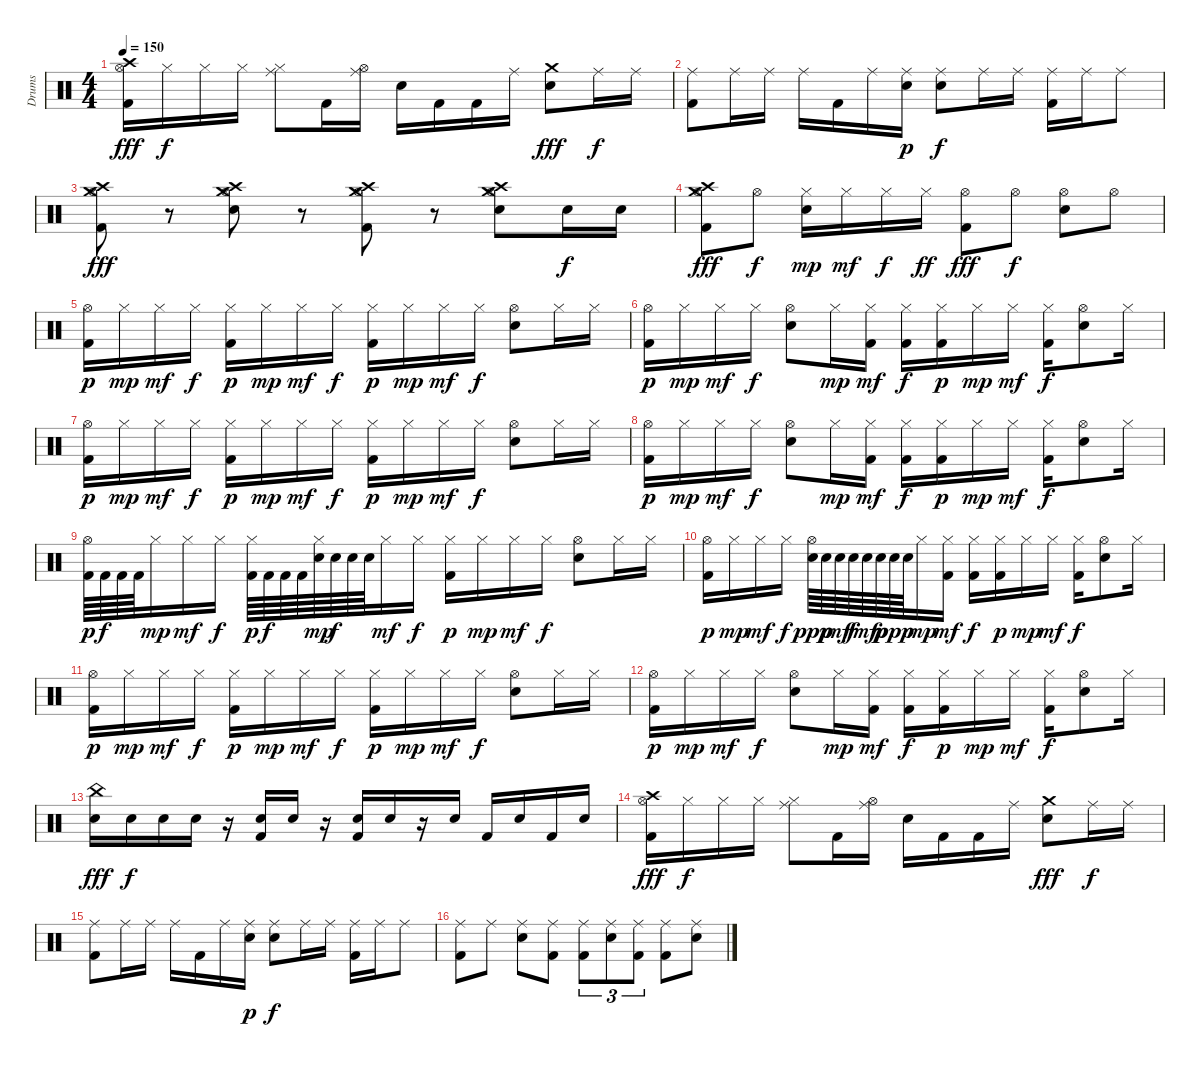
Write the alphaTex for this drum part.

\track ("Drums" "Drums") {instrument percussion}
\staff {score}
\articulation defaults
\ts (4 4)
\tempo 150
\clef neutral
\ks c
("Crash high (hit)" "Hi-Hat (open)" "Kick (hit) 2").16{dy fff} "Hi-Hat (closed)".16{dy f} "Hi-Hat (closed)".16 "Hi-Hat (closed)".16 ("Ride (middle)" "Hi-Hat (closed)").8 "Kick (hit) 2".16 ("Ride (middle)" "Hi-Hat (open)").16 "Electric Snare (hit)".16 "Kick (hit) 2".16 "Kick (hit) 2".16 "Ride (middle)".16 ("Crash medium (hit)" "Electric Snare (hit)").8{dy fff} "Ride (middle)".16{dy f} "Ride (middle)".16 |
("Ride (middle)" "Kick (hit) 2").8 "Ride (middle)".16 "Ride (middle)".16 "Ride (middle)".16 "Kick (hit) 2".16 "Ride (middle)".16 ("Ride (middle)" "Electric Snare (hit)").16{dy p} ("Ride (middle)" "Electric Snare (hit)").8{dy f} "Ride (middle)".16 "Ride (middle)".16 ("Ride (middle)" "Kick (hit) 2").16 "Ride (middle)".16 "Ride (middle)".8 |
("Crash medium (hit)" "Crash high (hit)" "Hi-Hat (open)" "Kick (hit) 2").8{dy fff} r.8 ("Crash medium (hit)" "Crash high (hit)" "Hi-Hat (open)" "Electric Snare (hit)").8 r.8 ("Crash medium (hit)" "Crash high (hit)" "Hi-Hat (open)" "Kick (hit) 2").8 r.8 ("Crash medium (hit)" "Crash high (hit)" "Hi-Hat (open)" "Electric Snare (hit)").8 "Electric Snare (hit)".16{dy f} "Electric Snare (hit)".16 |
("Crash medium (hit)" "Crash high (hit)" "Hi-Hat (open)" "Kick (hit) 2").8{dy fff} "Hi-Hat (open)".8{dy f} ("Hi-Hat (closed)" "Electric Snare (hit)").16{dy mp} "Hi-Hat (closed)".16{dy mf} "Hi-Hat (closed)".16{dy f} "Hi-Hat (closed)".16{dy ff} ("Hi-Hat (open)" "Kick (hit) 2").8{dy fff} "Hi-Hat (open)".8{dy f} ("Hi-Hat (open)" "Electric Snare (hit)").8 "Hi-Hat (open)".8 |
("Hi-Hat (open)" "Kick (hit) 2").16{dy p} "Hi-Hat (closed)".16{dy mp} "Hi-Hat (closed)".16{dy mf} "Hi-Hat (closed)".16{dy f} ("Hi-Hat (closed)" "Kick (hit) 2").16{dy p} "Hi-Hat (closed)".16{dy mp} "Hi-Hat (closed)".16{dy mf} "Hi-Hat (closed)".16{dy f} ("Hi-Hat (closed)" "Kick (hit) 2").16{dy p} "Hi-Hat (closed)".16{dy mp} "Hi-Hat (closed)".16{dy mf} "Hi-Hat (closed)".16{dy f} ("Hi-Hat (open)" "Electric Snare (hit)").8 "Hi-Hat (closed)".16 "Hi-Hat (closed)".16 |
("Hi-Hat (open)" "Kick (hit) 2").16{dy p} "Hi-Hat (closed)".16{dy mp} "Hi-Hat (closed)".16{dy mf} "Hi-Hat (closed)".16{dy f} ("Hi-Hat (open)" "Electric Snare (hit)").8 "Hi-Hat (closed)".16{dy mp} ("Hi-Hat (closed)" "Kick (hit) 2").16{dy mf} ("Hi-Hat (closed)" "Kick (hit) 2").16{dy f} ("Hi-Hat (closed)" "Kick (hit) 2").16{dy p} "Hi-Hat (closed)".16{dy mp} "Hi-Hat (closed)".16{dy mf} ("Hi-Hat (closed)" "Kick (hit) 2").16{dy f} ("Hi-Hat (open)" "Electric Snare (hit)").8 "Hi-Hat (closed)".16 |
("Hi-Hat (open)" "Kick (hit) 2").16{dy p} "Hi-Hat (closed)".16{dy mp} "Hi-Hat (closed)".16{dy mf} "Hi-Hat (closed)".16{dy f} ("Hi-Hat (closed)" "Kick (hit) 2").16{dy p} "Hi-Hat (closed)".16{dy mp} "Hi-Hat (closed)".16{dy mf} "Hi-Hat (closed)".16{dy f} ("Hi-Hat (closed)" "Kick (hit) 2").16{dy p} "Hi-Hat (closed)".16{dy mp} "Hi-Hat (closed)".16{dy mf} "Hi-Hat (closed)".16{dy f} ("Hi-Hat (open)" "Electric Snare (hit)").8 "Hi-Hat (closed)".16 "Hi-Hat (closed)".16 |
("Hi-Hat (open)" "Kick (hit) 2").16{dy p} "Hi-Hat (closed)".16{dy mp} "Hi-Hat (closed)".16{dy mf} "Hi-Hat (closed)".16{dy f} ("Hi-Hat (open)" "Electric Snare (hit)").8 "Hi-Hat (closed)".16{dy mp} ("Hi-Hat (closed)" "Kick (hit) 2").16{dy mf} ("Hi-Hat (closed)" "Kick (hit) 2").16{dy f} ("Hi-Hat (closed)" "Kick (hit) 2").16{dy p} "Hi-Hat (closed)".16{dy mp} "Hi-Hat (closed)".16{dy mf} ("Hi-Hat (closed)" "Kick (hit) 2").16{dy f} ("Hi-Hat (open)" "Electric Snare (hit)").8 "Hi-Hat (closed)".16 |
("Hi-Hat (open)" "Kick (hit) 2").64{dy p} "Kick (hit) 2".64{dy f} "Kick (hit) 2".64 "Kick (hit) 2".64 "Hi-Hat (closed)".16{dy mp} "Hi-Hat (closed)".16{dy mf} "Hi-Hat (closed)".16{dy f} ("Hi-Hat (closed)" "Kick (hit) 2").64{dy p} "Kick (hit) 2".64{dy f} "Kick (hit) 2".64 "Kick (hit) 2".64 ("Hi-Hat (closed)" "Electric Snare (hit)").64{dy mp} "Electric Snare (hit)".64{dy f} "Electric Snare (hit)".64 "Electric Snare (hit)".64 "Hi-Hat (closed)".16{dy mf} "Hi-Hat (closed)".16{dy f} ("Hi-Hat (closed)" "Kick (hit) 2").16{dy p} "Hi-Hat (closed)".16{dy mp} "Hi-Hat (closed)".16{dy mf} "Hi-Hat (closed)".16{dy f} ("Hi-Hat (open)" "Electric Snare (hit)").8 "Hi-Hat (closed)".16 "Hi-Hat (closed)".16 |
("Hi-Hat (open)" "Kick (hit) 2").16{dy p} "Hi-Hat (closed)".16{dy mp} "Hi-Hat (closed)".16{dy mf} "Hi-Hat (closed)".16{dy f} ("Hi-Hat (open)" "Electric Snare (hit)").64{dy ppp} "Electric Snare (hit)".64{dy p} "Electric Snare (hit)".64{dy mf} "Electric Snare (hit)".64{dy f} "Electric Snare (hit)".64{dy mf} "Electric Snare (hit)".64{dy p} "Electric Snare (hit)".64{dy ppp} "Electric Snare (hit)".64 "Hi-Hat (closed)".16{dy mp} ("Hi-Hat (closed)" "Kick (hit) 2").16{dy mf} ("Hi-Hat (closed)" "Kick (hit) 2").16{dy f} ("Hi-Hat (closed)" "Kick (hit) 2").16{dy p} "Hi-Hat (closed)".16{dy mp} "Hi-Hat (closed)".16{dy mf} ("Hi-Hat (closed)" "Kick (hit) 2").16{dy f} ("Hi-Hat (open)" "Electric Snare (hit)").8 "Hi-Hat (closed)".16 |
("Hi-Hat (open)" "Kick (hit) 2").16{dy p} "Hi-Hat (closed)".16{dy mp} "Hi-Hat (closed)".16{dy mf} "Hi-Hat (closed)".16{dy f} ("Hi-Hat (closed)" "Kick (hit) 2").16{dy p} "Hi-Hat (closed)".16{dy mp} "Hi-Hat (closed)".16{dy mf} "Hi-Hat (closed)".16{dy f} ("Hi-Hat (closed)" "Kick (hit) 2").16{dy p} "Hi-Hat (closed)".16{dy mp} "Hi-Hat (closed)".16{dy mf} "Hi-Hat (closed)".16{dy f} ("Hi-Hat (open)" "Electric Snare (hit)").8 "Hi-Hat (closed)".16 "Hi-Hat (closed)".16 |
("Hi-Hat (open)" "Kick (hit) 2").16{dy p} "Hi-Hat (closed)".16{dy mp} "Hi-Hat (closed)".16{dy mf} "Hi-Hat (closed)".16{dy f} ("Hi-Hat (open)" "Electric Snare (hit)").8 "Hi-Hat (closed)".16{dy mp} ("Hi-Hat (closed)" "Kick (hit) 2").16{dy mf} ("Hi-Hat (closed)" "Kick (hit) 2").16{dy f} ("Hi-Hat (closed)" "Kick (hit) 2").16{dy p} "Hi-Hat (closed)".16{dy mp} "Hi-Hat (closed)".16{dy mf} ("Hi-Hat (closed)" "Kick (hit) 2").16{dy f} ("Hi-Hat (open)" "Electric Snare (hit)").8 "Hi-Hat (closed)".16 |
("China (hit)" "Electric Snare (hit)").16{dy fff} "Electric Snare (hit)".16{dy f} "Electric Snare (hit)".16 "Electric Snare (hit)".16 r.16 ("Electric Snare (hit)" "Kick (hit) 2").16 "Electric Snare (hit)".16 r.16 ("Electric Snare (hit)" "Kick (hit) 2").16 "Electric Snare (hit)".16 r.16 "Electric Snare (hit)".16 "Kick (hit) 2".16 "Electric Snare (hit)".16 "Kick (hit) 2".16 "Electric Snare (hit)".16 |
("Crash high (hit)" "Hi-Hat (open)" "Kick (hit) 2").16{dy fff} "Hi-Hat (closed)".16{dy f} "Hi-Hat (closed)".16 "Hi-Hat (closed)".16 ("Ride (middle)" "Hi-Hat (closed)").8 "Kick (hit) 2".16 ("Ride (middle)" "Hi-Hat (open)").16 "Electric Snare (hit)".16 "Kick (hit) 2".16 "Kick (hit) 2".16 "Ride (middle)".16 ("Crash medium (hit)" "Electric Snare (hit)").8{dy fff} "Ride (middle)".16{dy f} "Ride (middle)".16 |
("Ride (middle)" "Kick (hit) 2").8 "Ride (middle)".16 "Ride (middle)".16 "Ride (middle)".16 "Kick (hit) 2".16 "Ride (middle)".16 ("Ride (middle)" "Electric Snare (hit)").16{dy p} ("Ride (middle)" "Electric Snare (hit)").8{dy f} "Ride (middle)".16 "Ride (middle)".16 ("Ride (middle)" "Kick (hit) 2").16 "Ride (middle)".16 "Ride (middle)".8 |
("Ride (middle)" "Kick (hit) 2").8 "Ride (middle)".8 ("Ride (middle)" "Electric Snare (hit)").8 ("Ride (middle)" "Kick (hit) 2").8 ("Ride (middle)" "Kick (hit) 2").8{tu (3 2)} ("Ride (middle)" "Electric Snare (hit)").8{tu (3 2)} ("Ride (middle)" "Kick (hit) 2").8{tu (3 2)} ("Ride (middle)" "Kick (hit) 2").8 ("Ride (middle)" "Electric Snare (hit)").8
